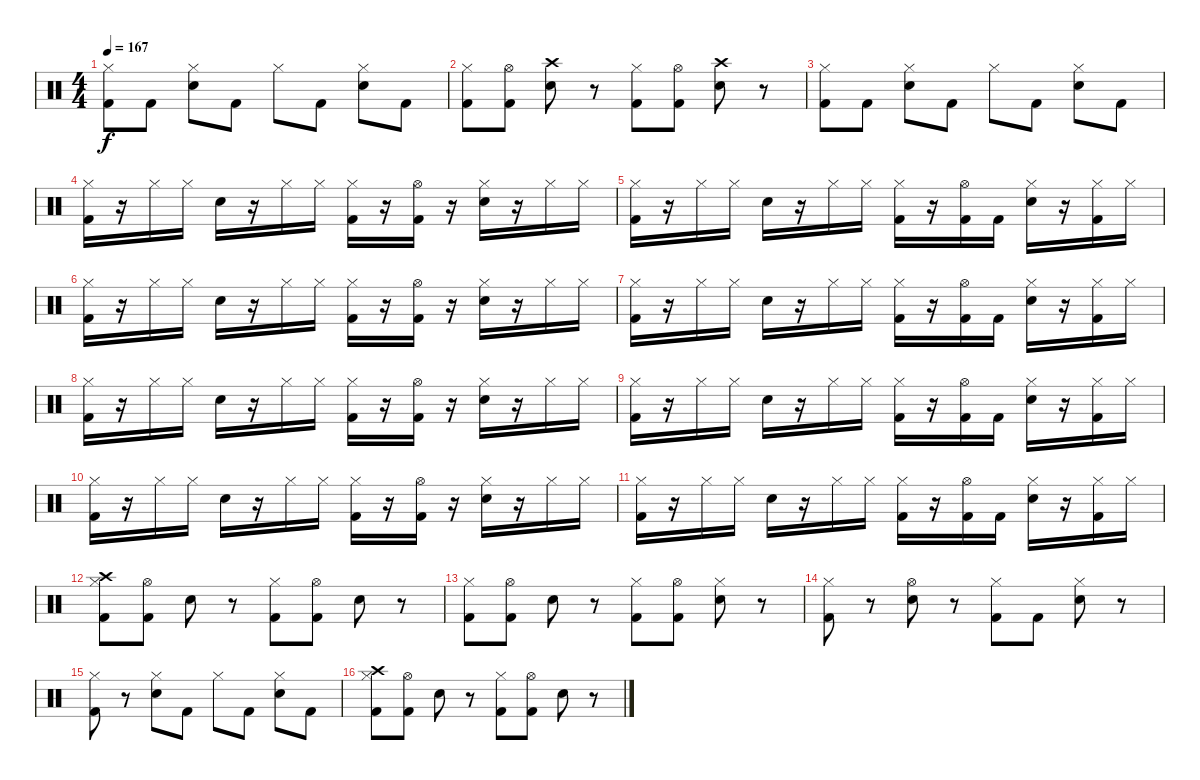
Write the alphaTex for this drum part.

\track "" {instrument percussion}
\staff {score}
\articulation defaults
\ts (4 4)
\tempo 167
\clef neutral
\ks c
("Hi-Hat (closed)" "Kick (hit) 2").8{dy f} "Kick (hit) 2".8 ("Hi-Hat (closed)" "Electric Snare (hit)").8 "Kick (hit) 2".8 "Hi-Hat (closed)".8 "Kick (hit) 2".8 ("Hi-Hat (closed)" "Electric Snare (hit)").8 "Kick (hit) 2".8 |
("Hi-Hat (closed)" "Kick (hit) 2").8 ("Hi-Hat (open)" "Kick (hit) 2").8 ("Electric Snare (hit)" "Crash high (hit)").8 r.8 ("Hi-Hat (closed)" "Kick (hit) 2").8 ("Hi-Hat (open)" "Kick (hit) 2").8 ("Electric Snare (hit)" "Crash high (hit)").8 r.8 |
("Hi-Hat (closed)" "Kick (hit) 2").8 "Kick (hit) 2".8 ("Hi-Hat (closed)" "Electric Snare (hit)").8 "Kick (hit) 2".8 "Hi-Hat (closed)".8 "Kick (hit) 2".8 ("Hi-Hat (closed)" "Electric Snare (hit)").8 "Kick (hit) 2".8 |
("Hi-Hat (closed)" "Kick (hit) 2").16 r.16 "Hi-Hat (closed)".16 "Hi-Hat (closed)".16 "Electric Snare (hit)".16 r.16 "Hi-Hat (closed)".16 "Hi-Hat (closed)".16 ("Hi-Hat (closed)" "Kick (hit) 2").16 r.16 ("Hi-Hat (open)" "Kick (hit) 2").16 r.16 ("Hi-Hat (closed)" "Electric Snare (hit)").16 r.16 "Hi-Hat (closed)".16 "Hi-Hat (closed)".16 |
("Hi-Hat (closed)" "Kick (hit) 2").16 r.16 "Hi-Hat (closed)".16 "Hi-Hat (closed)".16 "Electric Snare (hit)".16 r.16 "Hi-Hat (closed)".16 "Hi-Hat (closed)".16 ("Hi-Hat (closed)" "Kick (hit) 2").16 r.16 ("Hi-Hat (open)" "Kick (hit) 2").16 "Kick (hit) 2".16 ("Hi-Hat (closed)" "Electric Snare (hit)").16 r.16 ("Hi-Hat (closed)" "Kick (hit) 2").16 "Hi-Hat (closed)".16 |
("Hi-Hat (closed)" "Kick (hit) 2").16 r.16 "Hi-Hat (closed)".16 "Hi-Hat (closed)".16 "Electric Snare (hit)".16 r.16 "Hi-Hat (closed)".16 "Hi-Hat (closed)".16 ("Hi-Hat (closed)" "Kick (hit) 2").16 r.16 ("Hi-Hat (open)" "Kick (hit) 2").16 r.16 ("Hi-Hat (closed)" "Electric Snare (hit)").16 r.16 "Hi-Hat (closed)".16 "Hi-Hat (closed)".16 |
("Hi-Hat (closed)" "Kick (hit) 2").16 r.16 "Hi-Hat (closed)".16 "Hi-Hat (closed)".16 "Electric Snare (hit)".16 r.16 "Hi-Hat (closed)".16 "Hi-Hat (closed)".16 ("Hi-Hat (closed)" "Kick (hit) 2").16 r.16 ("Hi-Hat (open)" "Kick (hit) 2").16 "Kick (hit) 2".16 ("Hi-Hat (closed)" "Electric Snare (hit)").16 r.16 ("Hi-Hat (closed)" "Kick (hit) 2").16 "Hi-Hat (closed)".16 |
("Hi-Hat (closed)" "Kick (hit) 2").16 r.16 "Hi-Hat (closed)".16 "Hi-Hat (closed)".16 "Electric Snare (hit)".16 r.16 "Hi-Hat (closed)".16 "Hi-Hat (closed)".16 ("Hi-Hat (closed)" "Kick (hit) 2").16 r.16 ("Hi-Hat (open)" "Kick (hit) 2").16 r.16 ("Hi-Hat (closed)" "Electric Snare (hit)").16 r.16 "Hi-Hat (closed)".16 "Hi-Hat (closed)".16 |
("Hi-Hat (closed)" "Kick (hit) 2").16 r.16 "Hi-Hat (closed)".16 "Hi-Hat (closed)".16 "Electric Snare (hit)".16 r.16 "Hi-Hat (closed)".16 "Hi-Hat (closed)".16 ("Hi-Hat (closed)" "Kick (hit) 2").16 r.16 ("Hi-Hat (open)" "Kick (hit) 2").16 "Kick (hit) 2".16 ("Hi-Hat (closed)" "Electric Snare (hit)").16 r.16 ("Hi-Hat (closed)" "Kick (hit) 2").16 "Hi-Hat (closed)".16 |
("Hi-Hat (closed)" "Kick (hit) 2").16 r.16 "Hi-Hat (closed)".16 "Hi-Hat (closed)".16 "Electric Snare (hit)".16 r.16 "Hi-Hat (closed)".16 "Hi-Hat (closed)".16 ("Hi-Hat (closed)" "Kick (hit) 2").16 r.16 ("Hi-Hat (open)" "Kick (hit) 2").16 r.16 ("Hi-Hat (closed)" "Electric Snare (hit)").16 r.16 "Hi-Hat (closed)".16 "Hi-Hat (closed)".16 |
("Hi-Hat (closed)" "Kick (hit) 2").16 r.16 "Hi-Hat (closed)".16 "Hi-Hat (closed)".16 "Electric Snare (hit)".16 r.16 "Hi-Hat (closed)".16 "Hi-Hat (closed)".16 ("Hi-Hat (closed)" "Kick (hit) 2").16 r.16 ("Hi-Hat (open)" "Kick (hit) 2").16 "Kick (hit) 2".16 ("Hi-Hat (closed)" "Electric Snare (hit)").16 r.16 ("Hi-Hat (closed)" "Kick (hit) 2").16 "Hi-Hat (closed)".16 |
("Hi-Hat (closed)" "Kick (hit) 2" "Crash high (hit)").8 ("Hi-Hat (open)" "Kick (hit) 2").8 "Electric Snare (hit)".8 r.8 ("Hi-Hat (closed)" "Kick (hit) 2").8 ("Hi-Hat (open)" "Kick (hit) 2").8 "Electric Snare (hit)".8 r.8 |
("Hi-Hat (closed)" "Kick (hit) 2").8 ("Hi-Hat (open)" "Kick (hit) 2").8 "Electric Snare (hit)".8 r.8 ("Hi-Hat (closed)" "Kick (hit) 2").8 ("Hi-Hat (open)" "Kick (hit) 2").8 ("Hi-Hat (closed)" "Electric Snare (hit)").8 r.8 |
("Hi-Hat (closed)" "Kick (hit) 2").8 r.8 ("Hi-Hat (open)" "Electric Snare (hit)").8 r.8 ("Hi-Hat (closed)" "Kick (hit) 2").8 "Kick (hit) 2".8 ("Hi-Hat (closed)" "Electric Snare (hit)").8 r.8 |
("Hi-Hat (closed)" "Kick (hit) 2").8 r.8 ("Hi-Hat (closed)" "Electric Snare (hit)").8 "Kick (hit) 2".8 "Hi-Hat (closed)".8 "Kick (hit) 2".8 ("Hi-Hat (closed)" "Electric Snare (hit)").8 "Kick (hit) 2".8 |
("Hi-Hat (closed)" "Kick (hit) 2" "Crash high (hit)").8 ("Hi-Hat (open)" "Kick (hit) 2").8 "Electric Snare (hit)".8 r.8 ("Hi-Hat (closed)" "Kick (hit) 2").8 ("Hi-Hat (open)" "Kick (hit) 2").8 "Electric Snare (hit)".8 r.8
